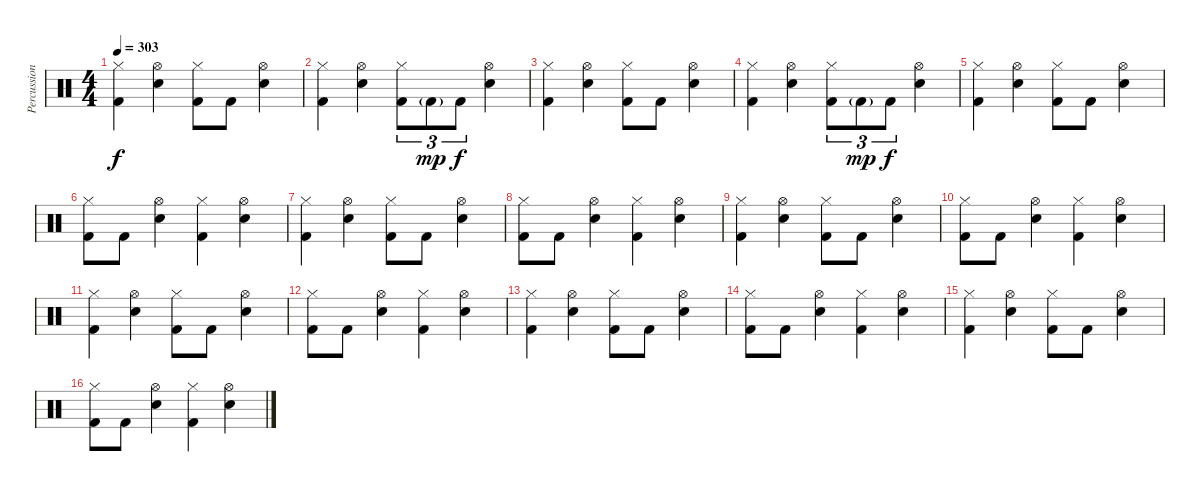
\track ("Percussions" "Percussion") {instrument percussion}
\staff {score}
\articulation defaults
\ts (4 4)
\tempo 303
\clef neutral
\ks c
("Hi-Hat (closed)" "Kick (hit) 2").4{dy f} ("Hi-Hat (open)" "Electric Snare (hit)").4 ("Hi-Hat (closed)" "Kick (hit) 2").8 "Kick (hit) 2".8 ("Hi-Hat (open)" "Electric Snare (hit)").4 |
("Hi-Hat (closed)" "Kick (hit) 2").4 ("Hi-Hat (open)" "Electric Snare (hit)").4 ("Hi-Hat (closed)" "Kick (hit) 2").8{tu (3 2)} "Kick (hit) 2"{g}.8{tu (3 2) dy mp} "Kick (hit) 2".8{tu (3 2) dy f} ("Hi-Hat (open)" "Electric Snare (hit)").4 |
("Hi-Hat (closed)" "Kick (hit) 2").4 ("Hi-Hat (open)" "Electric Snare (hit)").4 ("Hi-Hat (closed)" "Kick (hit) 2").8 "Kick (hit) 2".8 ("Hi-Hat (open)" "Electric Snare (hit)").4 |
("Hi-Hat (closed)" "Kick (hit) 2").4 ("Hi-Hat (open)" "Electric Snare (hit)").4 ("Hi-Hat (closed)" "Kick (hit) 2").8{tu (3 2)} "Kick (hit) 2"{g}.8{tu (3 2) dy mp} "Kick (hit) 2".8{tu (3 2) dy f} ("Hi-Hat (open)" "Electric Snare (hit)").4 |
("Hi-Hat (closed)" "Kick (hit) 2").4 ("Hi-Hat (open)" "Electric Snare (hit)").4 ("Hi-Hat (closed)" "Kick (hit) 2").8 "Kick (hit) 2".8 ("Hi-Hat (open)" "Electric Snare (hit)").4 |
("Hi-Hat (closed)" "Kick (hit) 2").8 "Kick (hit) 2".8 ("Hi-Hat (open)" "Electric Snare (hit)").4 ("Hi-Hat (closed)" "Kick (hit) 2").4 ("Hi-Hat (open)" "Electric Snare (hit)").4 |
("Hi-Hat (closed)" "Kick (hit) 2").4 ("Hi-Hat (open)" "Electric Snare (hit)").4 ("Hi-Hat (closed)" "Kick (hit) 2").8 "Kick (hit) 2".8 ("Hi-Hat (open)" "Electric Snare (hit)").4 |
("Hi-Hat (closed)" "Kick (hit) 2").8 "Kick (hit) 2".8 ("Hi-Hat (open)" "Electric Snare (hit)").4 ("Hi-Hat (closed)" "Kick (hit) 2").4 ("Hi-Hat (open)" "Electric Snare (hit)").4 |
("Hi-Hat (closed)" "Kick (hit) 2").4 ("Hi-Hat (open)" "Electric Snare (hit)").4 ("Hi-Hat (closed)" "Kick (hit) 2").8 "Kick (hit) 2".8 ("Hi-Hat (open)" "Electric Snare (hit)").4 |
("Hi-Hat (closed)" "Kick (hit) 2").8 "Kick (hit) 2".8 ("Hi-Hat (open)" "Electric Snare (hit)").4 ("Hi-Hat (closed)" "Kick (hit) 2").4 ("Hi-Hat (open)" "Electric Snare (hit)").4 |
("Hi-Hat (closed)" "Kick (hit) 2").4 ("Hi-Hat (open)" "Electric Snare (hit)").4 ("Hi-Hat (closed)" "Kick (hit) 2").8 "Kick (hit) 2".8 ("Hi-Hat (open)" "Electric Snare (hit)").4 |
("Hi-Hat (closed)" "Kick (hit) 2").8 "Kick (hit) 2".8 ("Hi-Hat (open)" "Electric Snare (hit)").4 ("Hi-Hat (closed)" "Kick (hit) 2").4 ("Hi-Hat (open)" "Electric Snare (hit)").4 |
("Hi-Hat (closed)" "Kick (hit) 2").4 ("Hi-Hat (open)" "Electric Snare (hit)").4 ("Hi-Hat (closed)" "Kick (hit) 2").8 "Kick (hit) 2".8 ("Hi-Hat (open)" "Electric Snare (hit)").4 |
("Hi-Hat (closed)" "Kick (hit) 2").8 "Kick (hit) 2".8 ("Hi-Hat (open)" "Electric Snare (hit)").4 ("Hi-Hat (closed)" "Kick (hit) 2").4 ("Hi-Hat (open)" "Electric Snare (hit)").4 |
("Hi-Hat (closed)" "Kick (hit) 2").4 ("Hi-Hat (open)" "Electric Snare (hit)").4 ("Hi-Hat (closed)" "Kick (hit) 2").8 "Kick (hit) 2".8 ("Hi-Hat (open)" "Electric Snare (hit)").4 |
("Hi-Hat (closed)" "Kick (hit) 2").8 "Kick (hit) 2".8 ("Hi-Hat (open)" "Electric Snare (hit)").4 ("Hi-Hat (closed)" "Kick (hit) 2").4 ("Hi-Hat (open)" "Electric Snare (hit)").4
